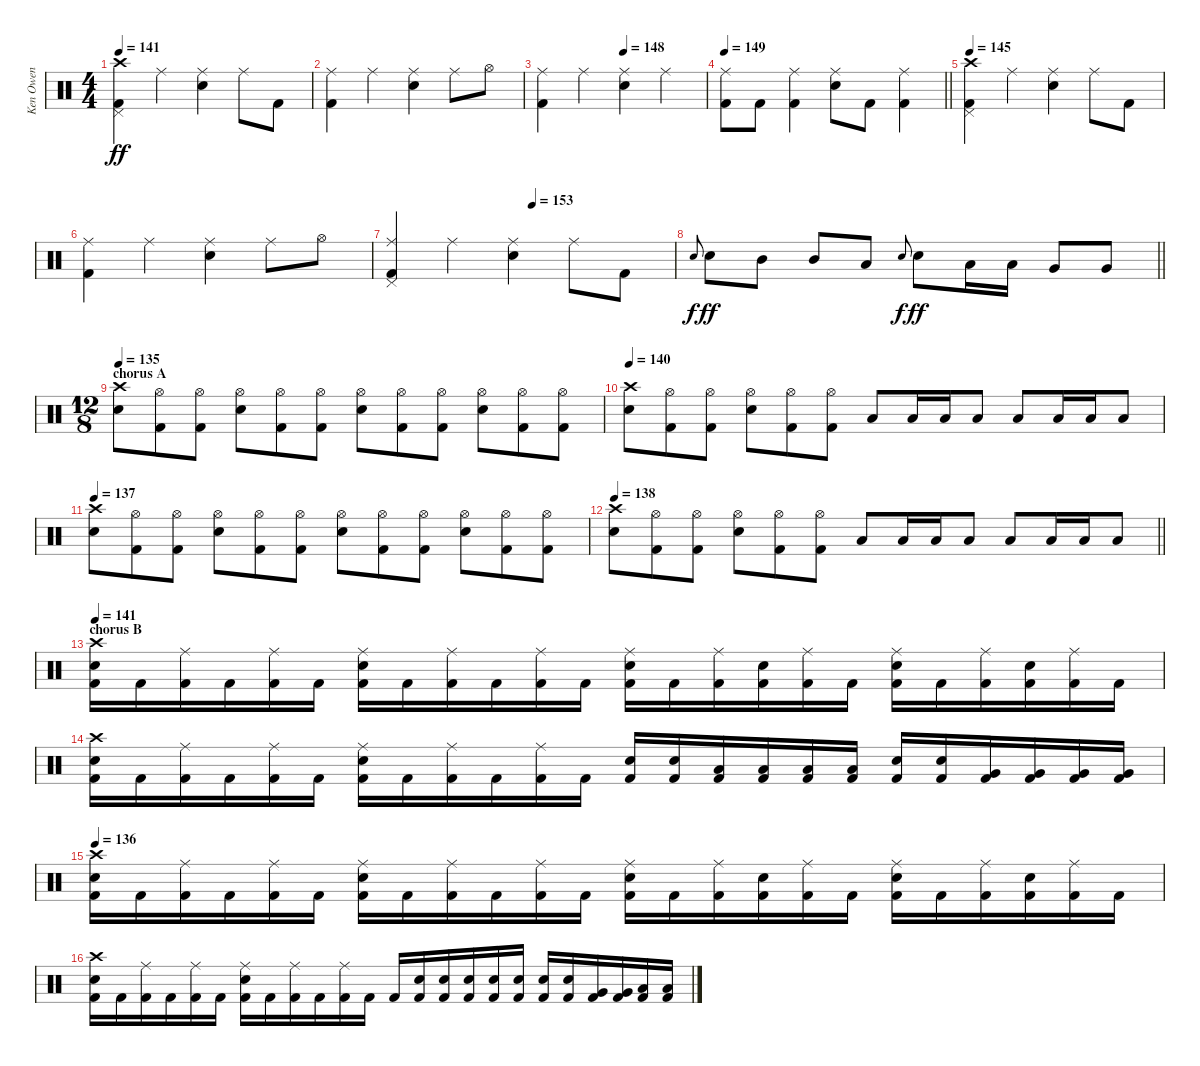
\track ("Ken Owen" "Ken Owen") {instrument percussion}
\staff {score}
\articulation defaults
\ts (4 4)
\tempo 141
\clef neutral
\ks c
("Crash high (hit)" "Pedal Hi-Hat (hit)" "Kick (hit) 2").4{dy ff} "Ride (middle)".4 ("Ride (middle)" "Snare (hit) 2").4 "Ride (middle)".8 "Kick (hit) 2".8 |
("Ride (middle)" "Kick (hit) 2").4 "Ride (middle)".4 ("Ride (middle)" "Snare (hit) 2").4 "Ride (middle)".8 "Hi-Hat (open)".8 |
\tempo (148 0.5)
("Ride (middle)" "Kick (hit) 2").4 "Ride (middle)".4 ("Ride (middle)" "Snare (hit) 2").4 "Ride (middle)".4 |
\tempo 149
\barLineRight lightlight
("Ride (middle)" "Kick (hit) 2").8 "Kick (hit) 2".8 ("Ride (middle)" "Kick (hit) 2").4 ("Ride (middle)" "Snare (hit) 2").8 "Kick (hit) 2".8 ("Ride (middle)" "Kick (hit) 2").4 |
\tempo 145
("Crash high (hit)" "Pedal Hi-Hat (hit)" "Kick (hit) 2").4 "Ride (middle)".4 ("Ride (middle)" "Snare (hit) 2").4 "Ride (middle)".8 "Kick (hit) 2".8 |
("Ride (middle)" "Kick (hit) 2").4 "Ride (middle)".4 ("Ride (middle)" "Snare (hit) 2").4 "Ride (middle)".8 "Hi-Hat (open)".8 |
\tempo (153 0.5)
("Ride (middle)" "Pedal Hi-Hat (hit)" "Kick (hit) 2").4 "Ride (middle)".4 ("Ride (middle)" "Snare (hit) 2").4 "Ride (middle)".8 "Kick (hit) 2".8 |
\barLineRight lightlight "Snare (hit) 2".8{gr onbeat dy f} "Snare (hit) 2".8{dy ff} "Mid Tom (hit)".8 "Mid Tom (hit)".8 "Low Tom (hit)".8 "Snare (hit) 2".8{gr onbeat dy f} "Snare (hit) 2".8{dy ff} "Low Tom (hit)".16 "Low Tom (hit)".16 "Very Low Tom (hit)".8 "Very Low Tom (hit)".8
|
\ts (12 8)
\section ("" "chorus A")
\tempo 135
("Crash high (hit)" "Snare (hit) 2").8 ("Hi-Hat (open)" "Kick (hit) 2").8 ("Hi-Hat (open)" "Kick (hit) 2").8 ("Hi-Hat (open)" "Snare (hit) 2").8 ("Hi-Hat (open)" "Kick (hit) 2").8 ("Hi-Hat (open)" "Kick (hit) 2").8 ("Hi-Hat (open)" "Snare (hit) 2").8 ("Hi-Hat (open)" "Kick (hit) 2").8 ("Hi-Hat (open)" "Kick (hit) 2").8 ("Hi-Hat (open)" "Snare (hit) 2").8 ("Hi-Hat (open)" "Kick (hit) 2").8 ("Hi-Hat (open)" "Kick (hit) 2").8 |
\tempo 140
("Crash high (hit)" "Snare (hit) 2").8 ("Hi-Hat (open)" "Kick (hit) 2").8 ("Hi-Hat (open)" "Kick (hit) 2").8 ("Hi-Hat (open)" "Snare (hit) 2").8 ("Hi-Hat (open)" "Kick (hit) 2").8 ("Hi-Hat (open)" "Kick (hit) 2").8 "Low Tom (hit)".8 "Low Tom (hit)".16 "Low Tom (hit)".16 "Low Tom (hit)".8 "Low Floor Tom (hit)".8 "Low Floor Tom (hit)".16 "Low Floor Tom (hit)".16 "Low Floor Tom (hit)".8 |
\tempo 137
("Crash high (hit)" "Snare (hit) 2").8 ("Hi-Hat (open)" "Kick (hit) 2").8 ("Hi-Hat (open)" "Kick (hit) 2").8 ("Hi-Hat (open)" "Snare (hit) 2").8 ("Hi-Hat (open)" "Kick (hit) 2").8 ("Hi-Hat (open)" "Kick (hit) 2").8 ("Hi-Hat (open)" "Snare (hit) 2").8 ("Hi-Hat (open)" "Kick (hit) 2").8 ("Hi-Hat (open)" "Kick (hit) 2").8 ("Hi-Hat (open)" "Snare (hit) 2").8 ("Hi-Hat (open)" "Kick (hit) 2").8 ("Hi-Hat (open)" "Kick (hit) 2").8 |
\tempo 138
\barLineRight lightlight
("Crash high (hit)" "Snare (hit) 2").8 ("Hi-Hat (open)" "Kick (hit) 2").8 ("Hi-Hat (open)" "Kick (hit) 2").8 ("Hi-Hat (open)" "Snare (hit) 2").8 ("Hi-Hat (open)" "Kick (hit) 2").8 ("Hi-Hat (open)" "Kick (hit) 2").8 "Low Tom (hit)".8 "Low Tom (hit)".16 "Low Tom (hit)".16 "Low Tom (hit)".8 "Low Floor Tom (hit)".8 "Low Floor Tom (hit)".16 "Low Floor Tom (hit)".16 "Low Floor Tom (hit)".8 |
\section ("" "chorus B")
\tempo 141
("Crash high (hit)" "Snare (hit) 2" "Kick (hit) 2").16 "Kick (hit) 2".16 ("Ride (middle)" "Kick (hit) 2").16 "Kick (hit) 2".16 ("Ride (middle)" "Kick (hit) 2").16 "Kick (hit) 2".16 ("Ride (middle)" "Snare (hit) 2" "Kick (hit) 2").16 "Kick (hit) 2".16 ("Ride (middle)" "Kick (hit) 2").16 "Kick (hit) 2".16 ("Ride (middle)" "Kick (hit) 2").16 "Kick (hit) 2".16 ("Ride (middle)" "Snare (hit) 2" "Kick (hit) 2").16 "Kick (hit) 2".16 ("Ride (middle)" "Kick (hit) 2").16 ("Snare (hit) 2" "Kick (hit) 2").16 ("Ride (middle)" "Kick (hit) 2").16 "Kick (hit) 2".16 ("Ride (middle)" "Snare (hit) 2" "Kick (hit) 2").16 "Kick (hit) 2".16 ("Ride (middle)" "Kick (hit) 2").16 ("Snare (hit) 2" "Kick (hit) 2").16 ("Ride (middle)" "Kick (hit) 2").16 "Kick (hit) 2".16 |
("Crash high (hit)" "Snare (hit) 2" "Kick (hit) 2").16 "Kick (hit) 2".16 ("Ride (middle)" "Kick (hit) 2").16 "Kick (hit) 2".16 ("Ride (middle)" "Kick (hit) 2").16 "Kick (hit) 2".16 ("Ride (middle)" "Snare (hit) 2" "Kick (hit) 2").16 "Kick (hit) 2".16 ("Ride (middle)" "Kick (hit) 2").16 "Kick (hit) 2".16 ("Ride (middle)" "Kick (hit) 2").16 "Kick (hit) 2".16 ("Snare (hit) 2" "Kick (hit) 2").16 ("Snare (hit) 2" "Kick (hit) 2").16 ("Low Tom (hit)" "Kick (hit) 2").16 ("Low Tom (hit)" "Kick (hit) 2").16 ("Low Tom (hit)" "Kick (hit) 2").16 ("Low Tom (hit)" "Kick (hit) 2").16 ("Snare (hit) 2" "Kick (hit) 2").16 ("Snare (hit) 2" "Kick (hit) 2").16 ("Very Low Tom (hit)" "Kick (hit) 2").16 ("Very Low Tom (hit)" "Kick (hit) 2").16 ("Very Low Tom (hit)" "Kick (hit) 2").16 ("Very Low Tom (hit)" "Kick (hit) 2").16 |
\tempo 136
("Crash high (hit)" "Snare (hit) 2" "Kick (hit) 2").16 "Kick (hit) 2".16 ("Ride (middle)" "Kick (hit) 2").16 "Kick (hit) 2".16 ("Ride (middle)" "Kick (hit) 2").16 "Kick (hit) 2".16 ("Ride (middle)" "Snare (hit) 2" "Kick (hit) 2").16 "Kick (hit) 2".16 ("Ride (middle)" "Kick (hit) 2").16 "Kick (hit) 2".16 ("Ride (middle)" "Kick (hit) 2").16 "Kick (hit) 2".16 ("Ride (middle)" "Snare (hit) 2" "Kick (hit) 2").16 "Kick (hit) 2".16 ("Ride (middle)" "Kick (hit) 2").16 ("Snare (hit) 2" "Kick (hit) 2").16 ("Ride (middle)" "Kick (hit) 2").16 "Kick (hit) 2".16 ("Ride (middle)" "Snare (hit) 2" "Kick (hit) 2").16 "Kick (hit) 2".16 ("Ride (middle)" "Kick (hit) 2").16 ("Snare (hit) 2" "Kick (hit) 2").16 ("Ride (middle)" "Kick (hit) 2").16 "Kick (hit) 2".16 |
("Crash high (hit)" "Snare (hit) 2" "Kick (hit) 2").16 "Kick (hit) 2".16 ("Ride (middle)" "Kick (hit) 2").16 "Kick (hit) 2".16 ("Ride (middle)" "Kick (hit) 2").16 "Kick (hit) 2".16 ("Ride (middle)" "Snare (hit) 2" "Kick (hit) 2").16 "Kick (hit) 2".16 ("Ride (middle)" "Kick (hit) 2").16 "Kick (hit) 2".16 ("Ride (middle)" "Kick (hit) 2").16 "Kick (hit) 2".16 "Kick (hit) 2".16 ("Snare (hit) 2" "Kick (hit) 2").16 ("Snare (hit) 2" "Kick (hit) 2").16 ("Snare (hit) 2" "Kick (hit) 2").16 ("Snare (hit) 2" "Kick (hit) 2").16 ("Snare (hit) 2" "Kick (hit) 2").16 ("Snare (hit) 2" "Kick (hit) 2").16 ("Snare (hit) 2" "Kick (hit) 2").16 ("Very Low Tom (hit)" "Kick (hit) 2").16 ("Very Low Tom (hit)" "Kick (hit) 2").16 ("Low Tom (hit)" "Kick (hit) 2").16 ("Low Tom (hit)" "Kick (hit) 2").16
